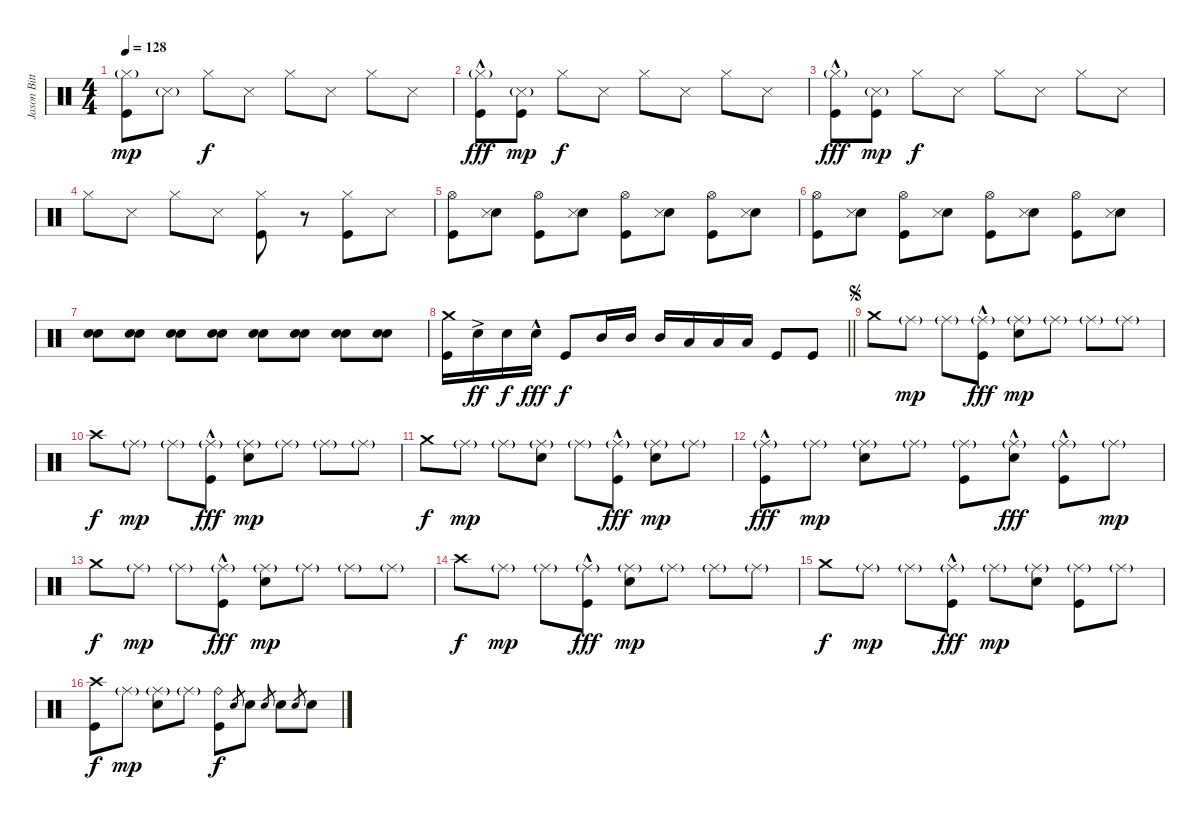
\track ("Jason Bittner" "Jason Bitt") {instrument percussion}
\staff {score}
\articulation defaults
\ts (4 4)
\tempo 128
\clef neutral
\ks c
("Hi-Hat (closed)"{g} "Kick (hit)").8{dy mp} "Snare (side stick) 3"{g}.8 "Hi-Hat (closed)".8{dy f} "Snare (side stick) 3".8 "Hi-Hat (closed)".8 "Snare (side stick) 3".8 "Hi-Hat (closed)".8 "Snare (side stick) 3".8 |
("Hi-Hat (closed)"{g} "Kick (hit)"{hac}).8{dy fff} ("Snare (side stick) 3"{g} "Kick (hit)").8{dy mp} "Hi-Hat (closed)".8{dy f} "Snare (side stick) 3".8 "Hi-Hat (closed)".8 "Snare (side stick) 3".8 "Hi-Hat (closed)".8 "Snare (side stick) 3".8 |
("Hi-Hat (closed)"{g} "Kick (hit)"{hac}).8{dy fff} ("Snare (side stick) 3"{g} "Kick (hit)").8{dy mp} "Hi-Hat (closed)".8{dy f} "Snare (side stick) 3".8 "Hi-Hat (closed)".8 "Snare (side stick) 3".8 "Hi-Hat (closed)".8 "Snare (side stick) 3".8 |
"Hi-Hat (closed)".8 "Snare (side stick) 3".8 "Hi-Hat (closed)".8 "Snare (side stick) 3".8 ("Hi-Hat (closed)" "Kick (hit)").8 r.8 ("Hi-Hat (closed)" "Kick (hit)").8 "Snare (side stick) 3".8 |
("Hi-Hat (open)" "Kick (hit)").8 ("Electric Snare (hit)" "Snare (side stick) 3").8 ("Hi-Hat (open)" "Kick (hit)").8 ("Electric Snare (hit)" "Snare (side stick) 3").8 ("Hi-Hat (open)" "Kick (hit)").8 ("Electric Snare (hit)" "Snare (side stick) 3").8 ("Hi-Hat (open)" "Kick (hit)").8 ("Electric Snare (hit)" "Snare (side stick) 3").8 |
("Hi-Hat (open)" "Kick (hit)").8 ("Electric Snare (hit)" "Snare (side stick) 3").8 ("Hi-Hat (open)" "Kick (hit)").8 ("Electric Snare (hit)" "Snare (side stick) 3").8 ("Hi-Hat (open)" "Kick (hit)").8 ("Electric Snare (hit)" "Snare (side stick) 3").8 ("Hi-Hat (open)" "Kick (hit)").8 ("Electric Snare (hit)" "Snare (side stick) 3").8 |
("Electric Snare (hit)" "Electric Snare (hit)").8 ("Electric Snare (hit)" "Electric Snare (hit)").8 ("Electric Snare (hit)" "Electric Snare (hit)").8 ("Electric Snare (hit)" "Electric Snare (hit)").8 ("Electric Snare (hit)" "Electric Snare (hit)").8 ("Electric Snare (hit)" "Electric Snare (hit)").8 ("Electric Snare (hit)" "Electric Snare (hit)").8 ("Electric Snare (hit)" "Electric Snare (hit)").8 |
\barLineRight lightlight
("Crash medium (hit)" "Kick (hit)").16 "Electric Snare (hit)"{ac}.16{dy ff} "Electric Snare (hit)".16{dy f} "Electric Snare (hit)"{hac}.16{dy fff} "Kick (hit)".8{dy f} "Mid Tom (hit)".16 "Mid Tom (hit)".16 "Mid Tom (hit)".16 "Low Tom (hit)".16 "Low Tom (hit)".16 "Low Tom (hit)".16 "Kick (hit)".8 "Kick (hit)".8 |
\jump segno "Crash medium (hit)".8 "Ride (middle)"{g}.8{dy mp} "Ride (middle)"{g}.8
("Ride (middle)"{g} "Kick (hit)"{hac}).8{dy fff} ("Ride (middle)"{g} "Electric Snare (hit)").8{dy mp} "Ride (middle)"{g}.8 "Ride (middle)"{g}.8 "Ride (middle)"{g}.8 |
"Crash high (hit)".8{dy f} "Ride (middle)"{g}.8{dy mp} "Ride (middle)"{g}.8 ("Ride (middle)"{g} "Kick (hit)"{hac}).8{dy fff} ("Ride (middle)"{g} "Electric Snare (hit)").8{dy mp} "Ride (middle)"{g}.8 "Ride (middle)"{g}.8 "Ride (middle)"{g}.8 |
"Crash medium (hit)".8{dy f} "Ride (middle)"{g}.8{dy mp} "Ride (middle)"{g}.8 ("Ride (middle)"{g} "Electric Snare (hit)").8 "Ride (middle)"{g}.8 ("Ride (middle)"{g} "Kick (hit)"{hac}).8{dy fff} ("Ride (middle)"{g} "Electric Snare (hit)").8{dy mp} "Ride (middle)"{g}.8 |
("Ride (middle)"{g} "Kick (hit)"{hac}).8{dy fff} "Ride (middle)"{g}.8{dy mp} ("Ride (middle)"{g} "Electric Snare (hit)").8 "Ride (middle)"{g}.8 ("Ride (middle)"{g} "Kick (hit)").8 ("Ride (middle)"{g} "Electric Snare (hit)"{hac}).8{dy fff} ("Ride (middle)"{g} "Kick (hit)"{hac}).8 "Ride (middle)"{g}.8{dy mp} |
"Crash medium (hit)".8{dy f} "Ride (middle)"{g}.8{dy mp} "Ride (middle)"{g}.8 ("Ride (middle)"{g} "Kick (hit)"{hac}).8{dy fff} ("Ride (middle)"{g} "Electric Snare (hit)").8{dy mp} "Ride (middle)"{g}.8 "Ride (middle)"{g}.8 "Ride (middle)"{g}.8 |
"Crash high (hit)".8{dy f} "Ride (middle)"{g}.8{dy mp} "Ride (middle)"{g}.8 ("Ride (middle)"{g} "Kick (hit)"{hac}).8{dy fff} ("Ride (middle)"{g} "Electric Snare (hit)").8{dy mp} "Ride (middle)"{g}.8 "Ride (middle)"{g}.8 "Ride (middle)"{g}.8 |
"Crash medium (hit)".8{dy f} "Ride (middle)"{g}.8{dy mp} "Ride (middle)"{g}.8 ("Ride (middle)"{g} "Kick (hit)"{hac}).8{dy fff} "Ride (middle)"{g}.8{dy mp} ("Ride (middle)"{g} "Electric Snare (hit)").8 ("Ride (middle)"{g} "Kick (hit)").8 "Ride (middle)"{g}.8 |
("Crash high (hit)" "Kick (hit)").8{dy f} "Ride (middle)"{g}.8{dy mp} ("Ride (middle)"{g} "Electric Snare (hit)").8 "Ride (middle)"{g}.8 ("Ride (bell)" "Kick (hit)").8{dy f} "Electric Snare (hit)".8{gr} "Electric Snare (hit)".8 "Electric Snare (hit)".8{gr} "Electric Snare (hit)".8 "Electric Snare (hit)".8{gr} "Electric Snare (hit)".8
